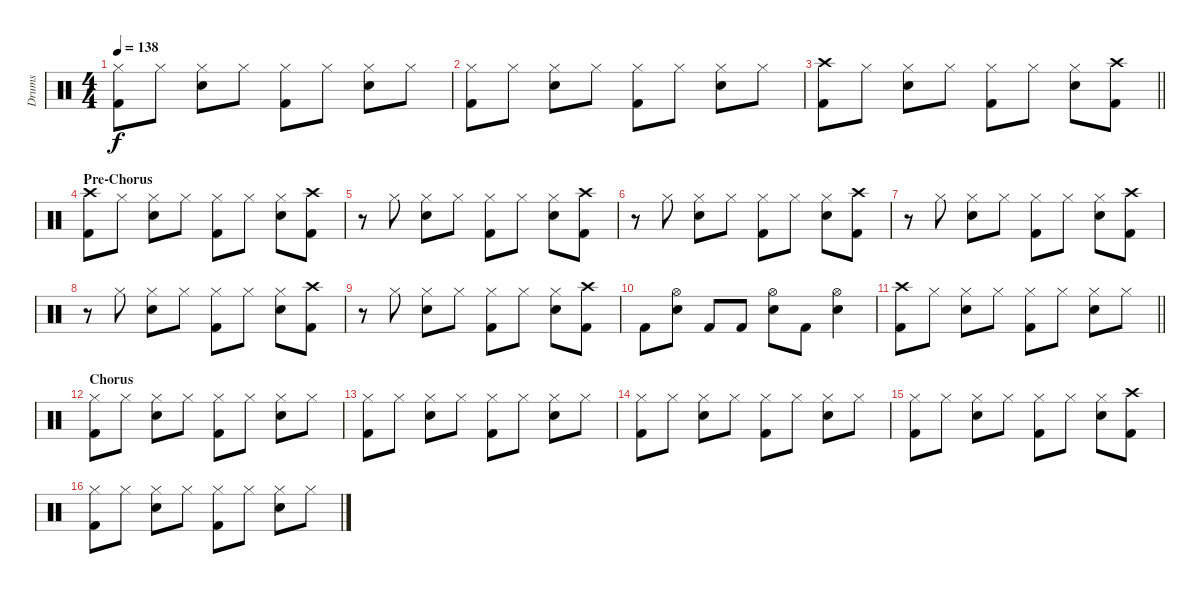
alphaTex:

\track ("Drums" "Drums") {instrument percussion}
\staff {score}
\articulation defaults
\ts (4 4)
\tempo 138
\clef neutral
\ks c
("Hi-Hat (closed)" "Kick (hit) 2").8{dy f} "Hi-Hat (closed)".8 ("Hi-Hat (closed)" "Snare (hit) 2").8 "Hi-Hat (closed)".8 ("Hi-Hat (closed)" "Kick (hit) 2").8 "Hi-Hat (closed)".8 ("Hi-Hat (closed)" "Snare (hit) 2").8 "Hi-Hat (closed)".8 |
("Hi-Hat (closed)" "Kick (hit) 2").8 "Hi-Hat (closed)".8 ("Hi-Hat (closed)" "Snare (hit) 2").8 "Hi-Hat (closed)".8 ("Hi-Hat (closed)" "Kick (hit) 2").8 "Hi-Hat (closed)".8 ("Hi-Hat (closed)" "Snare (hit) 2").8 "Hi-Hat (closed)".8 |
\barLineRight lightlight
("Crash high (hit)" "Kick (hit) 2").8 "Hi-Hat (closed)".8 ("Hi-Hat (closed)" "Snare (hit) 2").8 "Hi-Hat (closed)".8 ("Hi-Hat (closed)" "Kick (hit) 2").8 "Hi-Hat (closed)".8 ("Hi-Hat (closed)" "Snare (hit) 2").8 ("Crash high (hit)" "Kick (hit) 2").8 |
\section ("" "Pre-Chorus")
("Crash high (hit)" "Kick (hit) 2").8 "Hi-Hat (closed)".8 ("Hi-Hat (closed)" "Snare (hit) 2").8 "Hi-Hat (closed)".8 ("Hi-Hat (closed)" "Kick (hit) 2").8 "Hi-Hat (closed)".8 ("Hi-Hat (closed)" "Snare (hit) 2").8 ("Crash high (hit)" "Kick (hit) 2").8 |
r.8 "Hi-Hat (closed)".8 ("Hi-Hat (closed)" "Snare (hit) 2").8 "Hi-Hat (closed)".8 ("Hi-Hat (closed)" "Kick (hit) 2").8 "Hi-Hat (closed)".8 ("Hi-Hat (closed)" "Snare (hit) 2").8 ("Crash high (hit)" "Kick (hit) 2").8 |
r.8 "Hi-Hat (closed)".8 ("Hi-Hat (closed)" "Snare (hit) 2").8 "Hi-Hat (closed)".8 ("Hi-Hat (closed)" "Kick (hit) 2").8 "Hi-Hat (closed)".8 ("Hi-Hat (closed)" "Snare (hit) 2").8 ("Crash high (hit)" "Kick (hit) 2").8 |
r.8 "Hi-Hat (closed)".8 ("Hi-Hat (closed)" "Snare (hit) 2").8 "Hi-Hat (closed)".8 ("Hi-Hat (closed)" "Kick (hit) 2").8 "Hi-Hat (closed)".8 ("Hi-Hat (closed)" "Snare (hit) 2").8 ("Crash high (hit)" "Kick (hit) 2").8 |
r.8 "Hi-Hat (closed)".8 ("Hi-Hat (closed)" "Snare (hit) 2").8 "Hi-Hat (closed)".8 ("Hi-Hat (closed)" "Kick (hit) 2").8 "Hi-Hat (closed)".8 ("Hi-Hat (closed)" "Snare (hit) 2").8 ("Crash high (hit)" "Kick (hit) 2").8 |
r.8 "Hi-Hat (closed)".8 ("Hi-Hat (closed)" "Snare (hit) 2").8 "Hi-Hat (closed)".8 ("Hi-Hat (closed)" "Kick (hit) 2").8 "Hi-Hat (closed)".8 ("Hi-Hat (closed)" "Snare (hit) 2").8 ("Crash high (hit)" "Kick (hit) 2").8 |
"Kick (hit) 2".8 ("Hi-Hat (open)" "Snare (hit) 2").8 "Kick (hit) 2".8 "Kick (hit) 2".8 ("Hi-Hat (open)" "Snare (hit) 2").8 "Kick (hit) 2".8 ("Hi-Hat (open)" "Snare (hit) 2").4 |
\barLineRight lightlight
("Crash high (hit)" "Kick (hit) 2").8 "Hi-Hat (closed)".8 ("Hi-Hat (closed)" "Snare (hit) 2").8 "Hi-Hat (closed)".8 ("Hi-Hat (closed)" "Kick (hit) 2").8 "Hi-Hat (closed)".8 ("Hi-Hat (closed)" "Snare (hit) 2").8 "Hi-Hat (closed)".8 |
\section ("" "Chorus")
("Hi-Hat (closed)" "Kick (hit) 2").8 "Hi-Hat (closed)".8 ("Hi-Hat (closed)" "Snare (hit) 2").8 "Hi-Hat (closed)".8 ("Hi-Hat (closed)" "Kick (hit) 2").8 "Hi-Hat (closed)".8 ("Hi-Hat (closed)" "Snare (hit) 2").8 "Hi-Hat (closed)".8 |
("Hi-Hat (closed)" "Kick (hit) 2").8 "Hi-Hat (closed)".8 ("Hi-Hat (closed)" "Snare (hit) 2").8 "Hi-Hat (closed)".8 ("Hi-Hat (closed)" "Kick (hit) 2").8 "Hi-Hat (closed)".8 ("Hi-Hat (closed)" "Snare (hit) 2").8 "Hi-Hat (closed)".8 |
("Hi-Hat (closed)" "Kick (hit) 2").8 "Hi-Hat (closed)".8 ("Hi-Hat (closed)" "Snare (hit) 2").8 "Hi-Hat (closed)".8 ("Hi-Hat (closed)" "Kick (hit) 2").8 "Hi-Hat (closed)".8 ("Hi-Hat (closed)" "Snare (hit) 2").8 "Hi-Hat (closed)".8 |
("Hi-Hat (closed)" "Kick (hit) 2").8 "Hi-Hat (closed)".8 ("Hi-Hat (closed)" "Snare (hit) 2").8 "Hi-Hat (closed)".8 ("Hi-Hat (closed)" "Kick (hit) 2").8 "Hi-Hat (closed)".8 ("Hi-Hat (closed)" "Snare (hit) 2").8 ("Crash high (hit)" "Kick (hit) 2").8 |
("Hi-Hat (closed)" "Kick (hit) 2").8 "Hi-Hat (closed)".8 ("Hi-Hat (closed)" "Snare (hit) 2").8 "Hi-Hat (closed)".8 ("Hi-Hat (closed)" "Kick (hit) 2").8 "Hi-Hat (closed)".8 ("Hi-Hat (closed)" "Snare (hit) 2").8 "Hi-Hat (closed)".8
